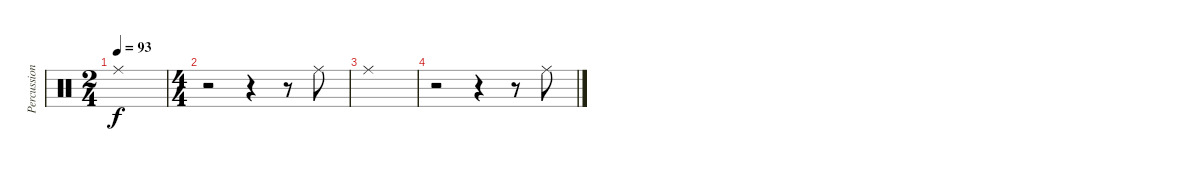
\track ("Percussion" "Percussion") {instrument percussion}
\staff {score}
\articulation defaults
\ts (2 4)
\tempo 93
\clef neutral
\ks c "Ride (middle)".1{dy f}
|
\ts (4 4)
r.2 r.4 r.8 "Ride (middle)".8 |
"Ride (middle)".1 |
r.2 r.4 r.8 "Ride (middle)".8
